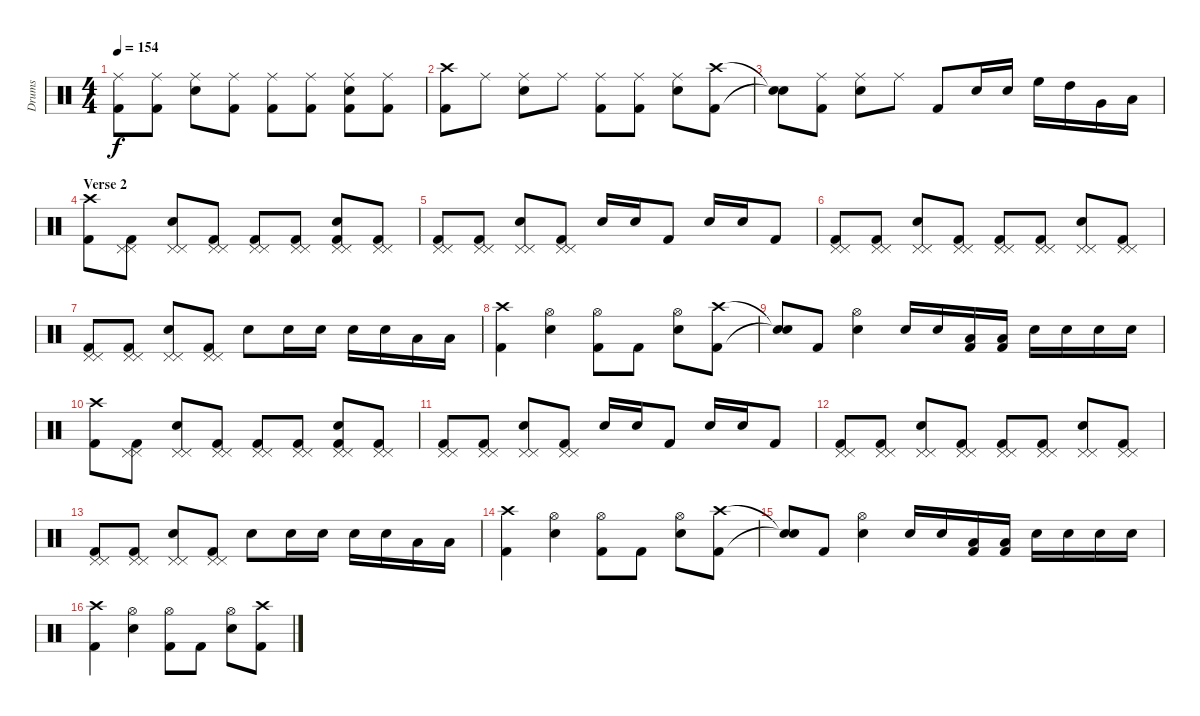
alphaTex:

\track ("Drums" "Drums") {instrument percussion}
\staff {score}
\articulation defaults
\ts (4 4)
\tempo 154
\clef neutral
\ks c
("Ride (middle)" "Kick (hit) 2").8{dy f} ("Ride (middle)" "Kick (hit) 2").8 ("Electric Snare (hit)" "Ride (middle)").8 ("Ride (middle)" "Kick (hit) 2").8 ("Ride (middle)" "Kick (hit) 2").8 ("Ride (middle)" "Kick (hit) 2").8 ("Electric Snare (hit)" "Ride (middle)" "Kick (hit) 2").8 ("Ride (middle)" "Kick (hit) 2").8 |
("Crash high (hit)" "Kick (hit) 2").8 "Ride (middle)".8 ("Ride (middle)" "Electric Snare (hit)").8 "Ride (middle)".8 ("Ride (middle)" "Kick (hit) 2").8 ("Ride (middle)" "Kick (hit) 2").8 ("Ride (middle)" "Electric Snare (hit)").8 ("Crash high (hit)" "Kick (hit) 2").8 |
("Snare (hit)"{t} "Snare (hit)"{t}).8 ("Ride (middle)" "Kick (hit) 2").8 ("Ride (middle)" "Electric Snare (hit)").8 "Ride (middle)".8 "Kick (hit) 2".8 "Electric Snare (hit)".16 "Electric Snare (hit)".16 "High Floor Tom (hit)".16 "High Tom (hit)".16 "Very Low Tom (hit)".16 "Low Floor Tom (hit)".16 |
\section ("" "Verse 2")
("Crash high (hit)" "Kick (hit) 2").8 ("Pedal Hi-Hat (hit)" "Pedal Hi-Hat (hit)" "Kick (hit) 2").8 ("Electric Snare (hit)" "Pedal Hi-Hat (hit)" "Pedal Hi-Hat (hit)").8 ("Pedal Hi-Hat (hit)" "Pedal Hi-Hat (hit)" "Kick (hit) 2").8 ("Pedal Hi-Hat (hit)" "Pedal Hi-Hat (hit)" "Kick (hit) 2").8 ("Pedal Hi-Hat (hit)" "Pedal Hi-Hat (hit)" "Kick (hit) 2").8 ("Electric Snare (hit)" "Pedal Hi-Hat (hit)" "Pedal Hi-Hat (hit)" "Kick (hit) 2").8 ("Pedal Hi-Hat (hit)" "Pedal Hi-Hat (hit)" "Kick (hit) 2").8 |
("Pedal Hi-Hat (hit)" "Pedal Hi-Hat (hit)" "Kick (hit) 2").8 ("Pedal Hi-Hat (hit)" "Pedal Hi-Hat (hit)" "Kick (hit) 2").8 ("Electric Snare (hit)" "Pedal Hi-Hat (hit)" "Pedal Hi-Hat (hit)").8 ("Pedal Hi-Hat (hit)" "Pedal Hi-Hat (hit)" "Kick (hit) 2").8 "Electric Snare (hit)".16 "Electric Snare (hit)".16 "Kick (hit) 2".8 "Electric Snare (hit)".16 "Electric Snare (hit)".16 "Kick (hit) 2".8 |
("Pedal Hi-Hat (hit)" "Pedal Hi-Hat (hit)" "Kick (hit) 2").8 ("Pedal Hi-Hat (hit)" "Pedal Hi-Hat (hit)" "Kick (hit) 2").8 ("Electric Snare (hit)" "Pedal Hi-Hat (hit)" "Pedal Hi-Hat (hit)").8 ("Pedal Hi-Hat (hit)" "Pedal Hi-Hat (hit)" "Kick (hit) 2").8 ("Pedal Hi-Hat (hit)" "Pedal Hi-Hat (hit)" "Kick (hit) 2").8 ("Pedal Hi-Hat (hit)" "Pedal Hi-Hat (hit)" "Kick (hit) 2").8 ("Electric Snare (hit)" "Pedal Hi-Hat (hit)" "Pedal Hi-Hat (hit)").8 ("Pedal Hi-Hat (hit)" "Pedal Hi-Hat (hit)" "Kick (hit) 2").8 |
("Pedal Hi-Hat (hit)" "Pedal Hi-Hat (hit)" "Kick (hit) 2").8 ("Pedal Hi-Hat (hit)" "Pedal Hi-Hat (hit)" "Kick (hit) 2").8 ("Electric Snare (hit)" "Pedal Hi-Hat (hit)" "Pedal Hi-Hat (hit)").8 ("Pedal Hi-Hat (hit)" "Pedal Hi-Hat (hit)" "Kick (hit) 2").8 "Electric Snare (hit)".8 "Electric Snare (hit)".16 "Electric Snare (hit)".16 "Electric Snare (hit)".16 "Electric Snare (hit)".16 "Low Tom (hit)".16 "Low Floor Tom (hit)".16 |
("Crash high (hit)" "Kick (hit) 2").4 ("Hi-Hat (open)" "Electric Snare (hit)").4 ("Hi-Hat (open)" "Kick (hit) 2").8 "Kick (hit) 2".8 ("Hi-Hat (open)" "Electric Snare (hit)").8 ("Crash high (hit)" "Kick (hit) 2").8 |
("Snare (hit)"{t} "Snare (hit)"{t}).8 "Kick (hit) 2".8 ("Hi-Hat (open)" "Electric Snare (hit)").4 "Electric Snare (hit)".16 "Electric Snare (hit)".16 ("Low Tom (hit)" "Kick (hit) 2").16 ("Low Floor Tom (hit)" "Kick (hit) 2").16 "Electric Snare (hit)".16 "Electric Snare (hit)".16 "Electric Snare (hit)".16 "Electric Snare (hit)".16 |
("Crash high (hit)" "Kick (hit) 2").8 ("Pedal Hi-Hat (hit)" "Pedal Hi-Hat (hit)" "Kick (hit) 2").8 ("Electric Snare (hit)" "Pedal Hi-Hat (hit)" "Pedal Hi-Hat (hit)").8 ("Pedal Hi-Hat (hit)" "Pedal Hi-Hat (hit)" "Kick (hit) 2").8 ("Pedal Hi-Hat (hit)" "Pedal Hi-Hat (hit)" "Kick (hit) 2").8 ("Pedal Hi-Hat (hit)" "Pedal Hi-Hat (hit)" "Kick (hit) 2").8 ("Electric Snare (hit)" "Pedal Hi-Hat (hit)" "Pedal Hi-Hat (hit)" "Kick (hit) 2").8 ("Pedal Hi-Hat (hit)" "Pedal Hi-Hat (hit)" "Kick (hit) 2").8 |
("Pedal Hi-Hat (hit)" "Pedal Hi-Hat (hit)" "Kick (hit) 2").8 ("Pedal Hi-Hat (hit)" "Pedal Hi-Hat (hit)" "Kick (hit) 2").8 ("Electric Snare (hit)" "Pedal Hi-Hat (hit)" "Pedal Hi-Hat (hit)").8 ("Pedal Hi-Hat (hit)" "Pedal Hi-Hat (hit)" "Kick (hit) 2").8 "Electric Snare (hit)".16 "Electric Snare (hit)".16 "Kick (hit) 2".8 "Electric Snare (hit)".16 "Electric Snare (hit)".16 "Kick (hit) 2".8 |
("Pedal Hi-Hat (hit)" "Pedal Hi-Hat (hit)" "Kick (hit) 2").8 ("Pedal Hi-Hat (hit)" "Pedal Hi-Hat (hit)" "Kick (hit) 2").8 ("Electric Snare (hit)" "Pedal Hi-Hat (hit)" "Pedal Hi-Hat (hit)").8 ("Pedal Hi-Hat (hit)" "Pedal Hi-Hat (hit)" "Kick (hit) 2").8 ("Pedal Hi-Hat (hit)" "Pedal Hi-Hat (hit)" "Kick (hit) 2").8 ("Pedal Hi-Hat (hit)" "Pedal Hi-Hat (hit)" "Kick (hit) 2").8 ("Electric Snare (hit)" "Pedal Hi-Hat (hit)" "Pedal Hi-Hat (hit)").8 ("Pedal Hi-Hat (hit)" "Pedal Hi-Hat (hit)" "Kick (hit) 2").8 |
("Pedal Hi-Hat (hit)" "Pedal Hi-Hat (hit)" "Kick (hit) 2").8 ("Pedal Hi-Hat (hit)" "Pedal Hi-Hat (hit)" "Kick (hit) 2").8 ("Electric Snare (hit)" "Pedal Hi-Hat (hit)" "Pedal Hi-Hat (hit)").8 ("Pedal Hi-Hat (hit)" "Pedal Hi-Hat (hit)" "Kick (hit) 2").8 "Electric Snare (hit)".8 "Electric Snare (hit)".16 "Electric Snare (hit)".16 "Electric Snare (hit)".16 "Electric Snare (hit)".16 "Low Tom (hit)".16 "Low Floor Tom (hit)".16 |
("Crash high (hit)" "Kick (hit) 2").4 ("Hi-Hat (open)" "Electric Snare (hit)").4 ("Hi-Hat (open)" "Kick (hit) 2").8 "Kick (hit) 2".8 ("Hi-Hat (open)" "Electric Snare (hit)").8 ("Crash high (hit)" "Kick (hit) 2").8 |
("Snare (hit)"{t} "Snare (hit)"{t}).8 "Kick (hit) 2".8 ("Hi-Hat (open)" "Electric Snare (hit)").4 "Electric Snare (hit)".16 "Electric Snare (hit)".16 ("Low Tom (hit)" "Kick (hit) 2").16 ("Low Floor Tom (hit)" "Kick (hit) 2").16 "Electric Snare (hit)".16 "Electric Snare (hit)".16 "Electric Snare (hit)".16 "Electric Snare (hit)".16 |
("Crash high (hit)" "Kick (hit) 2").4 ("Hi-Hat (open)" "Electric Snare (hit)").4 ("Hi-Hat (open)" "Kick (hit) 2").8 "Kick (hit) 2".8 ("Hi-Hat (open)" "Electric Snare (hit)").8 ("Crash high (hit)" "Kick (hit) 2").8
